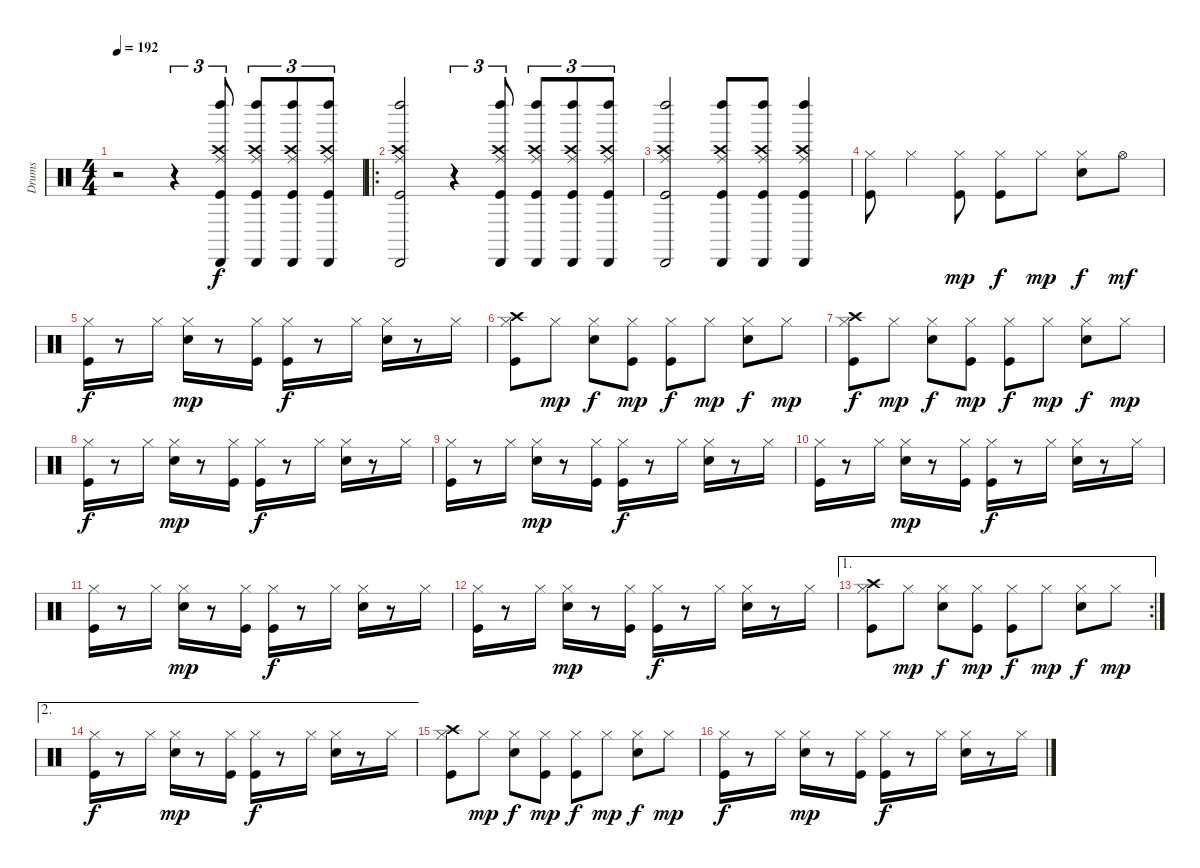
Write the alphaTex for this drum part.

\track ("Drums" "Drums") {instrument percussion}
\staff {score}
\articulation defaults
\ts (4 4)
\tempo 192
\clef neutral
\ks c
r.2{dy f} r.4{tu (3 2)} ("Kick (hit)" "Ride (middle)" "Crash high (hit)" "Left Maraca (hit)" "Cabasa (hit)").8{tu (3 2)} ("Kick (hit)" "Ride (middle)" "Crash high (hit)" "Left Maraca (hit)" "Cabasa (hit)").8{tu (3 2)} ("Kick (hit)" "Ride (middle)" "Crash high (hit)" "Left Maraca (hit)" "Cabasa (hit)").8{tu (3 2)} ("Kick (hit)" "Ride (middle)" "Crash high (hit)" "Left Maraca (hit)" "Cabasa (hit)").8{tu (3 2)} |
\ro
("Kick (hit)" "Ride (middle)" "Crash high (hit)" "Left Maraca (hit)" "Cabasa (hit)").2 r.4{tu (3 2)} ("Kick (hit)" "Ride (middle)" "Crash high (hit)" "Left Maraca (hit)" "Cabasa (hit)").8{tu (3 2)} ("Kick (hit)" "Ride (middle)" "Crash high (hit)" "Left Maraca (hit)" "Cabasa (hit)").8{tu (3 2)} ("Kick (hit)" "Ride (middle)" "Crash high (hit)" "Left Maraca (hit)" "Cabasa (hit)").8{tu (3 2)} ("Kick (hit)" "Ride (middle)" "Crash high (hit)" "Left Maraca (hit)" "Cabasa (hit)").8{tu (3 2)} |
("Kick (hit)" "Ride (middle)" "Crash high (hit)" "Left Maraca (hit)" "Cabasa (hit)").2 ("Kick (hit)" "Ride (middle)" "Crash high (hit)" "Left Maraca (hit)" "Cabasa (hit)").8 ("Kick (hit)" "Ride (middle)" "Crash high (hit)" "Left Maraca (hit)" "Cabasa (hit)").8 ("Kick (hit)" "Ride (middle)" "Crash high (hit)" "Left Maraca (hit)" "Cabasa (hit)").4 |
("Kick (hit)" "Hi-Hat (closed)").8 "Hi-Hat (closed)".4 ("Kick (hit)" "Hi-Hat (closed)").8{dy mp} ("Kick (hit)" "Hi-Hat (closed)").8{dy f} "Hi-Hat (closed)".8{dy mp} ("Snare (hit) 2" "Hi-Hat (closed)").8{dy f} "Hi-Hat (open)".8{dy mf} |
("Kick (hit)" "Hi-Hat (closed)").16{dy f} r.8 "Hi-Hat (closed)".16 ("Snare (hit) 2" "Hi-Hat (closed)").16{dy mp} r.8 ("Kick (hit)" "Hi-Hat (closed)").16 ("Kick (hit)" "Hi-Hat (closed)").16{dy f} r.8 "Hi-Hat (closed)".16 ("Snare (hit) 2" "Hi-Hat (closed)").16 r.8 "Hi-Hat (closed)".16 |
("Kick (hit)" "Hi-Hat (closed)" "Crash high (hit)").8 "Hi-Hat (closed)".8{dy mp} ("Snare (hit) 2" "Hi-Hat (closed)").8{dy f} ("Kick (hit)" "Hi-Hat (closed)").8{dy mp} ("Kick (hit)" "Hi-Hat (closed)").8{dy f} "Hi-Hat (closed)".8{dy mp} ("Snare (hit) 2" "Hi-Hat (closed)").8{dy f} "Hi-Hat (closed)".8{dy mp} |
("Kick (hit)" "Hi-Hat (closed)" "Crash high (hit)").8{dy f} "Hi-Hat (closed)".8{dy mp} ("Snare (hit) 2" "Hi-Hat (closed)").8{dy f} ("Kick (hit)" "Hi-Hat (closed)").8{dy mp} ("Kick (hit)" "Hi-Hat (closed)").8{dy f} "Hi-Hat (closed)".8{dy mp} ("Snare (hit) 2" "Hi-Hat (closed)").8{dy f} "Hi-Hat (closed)".8{dy mp} |
("Kick (hit)" "Hi-Hat (closed)").16{dy f} r.8 "Hi-Hat (closed)".16 ("Snare (hit) 2" "Hi-Hat (closed)").16{dy mp} r.8 ("Kick (hit)" "Hi-Hat (closed)").16 ("Kick (hit)" "Hi-Hat (closed)").16{dy f} r.8 "Hi-Hat (closed)".16 ("Snare (hit) 2" "Hi-Hat (closed)").16 r.8 "Hi-Hat (closed)".16 |
("Kick (hit)" "Hi-Hat (closed)").16 r.8 "Hi-Hat (closed)".16 ("Snare (hit) 2" "Hi-Hat (closed)").16{dy mp} r.8 ("Kick (hit)" "Hi-Hat (closed)").16 ("Kick (hit)" "Hi-Hat (closed)").16{dy f} r.8 "Hi-Hat (closed)".16 ("Snare (hit) 2" "Hi-Hat (closed)").16 r.8 "Hi-Hat (closed)".16 |
("Kick (hit)" "Hi-Hat (closed)").16 r.8 "Hi-Hat (closed)".16 ("Snare (hit) 2" "Hi-Hat (closed)").16{dy mp} r.8 ("Kick (hit)" "Hi-Hat (closed)").16 ("Kick (hit)" "Hi-Hat (closed)").16{dy f} r.8 "Hi-Hat (closed)".16 ("Snare (hit) 2" "Hi-Hat (closed)").16 r.8 "Hi-Hat (closed)".16 |
("Kick (hit)" "Hi-Hat (closed)").16 r.8 "Hi-Hat (closed)".16 ("Snare (hit) 2" "Hi-Hat (closed)").16{dy mp} r.8 ("Kick (hit)" "Hi-Hat (closed)").16 ("Kick (hit)" "Hi-Hat (closed)").16{dy f} r.8 "Hi-Hat (closed)".16 ("Snare (hit) 2" "Hi-Hat (closed)").16 r.8 "Hi-Hat (closed)".16 |
("Kick (hit)" "Hi-Hat (closed)").16 r.8 "Hi-Hat (closed)".16 ("Snare (hit) 2" "Hi-Hat (closed)").16{dy mp} r.8 ("Kick (hit)" "Hi-Hat (closed)").16 ("Kick (hit)" "Hi-Hat (closed)").16{dy f} r.8 "Hi-Hat (closed)".16 ("Snare (hit) 2" "Hi-Hat (closed)").16 r.8 "Hi-Hat (closed)".16 |
\ae 1
\rc 2
("Kick (hit)" "Hi-Hat (closed)" "Crash high (hit)").8 "Hi-Hat (closed)".8{dy mp} ("Snare (hit) 2" "Hi-Hat (closed)").8{dy f} ("Kick (hit)" "Hi-Hat (closed)").8{dy mp} ("Kick (hit)" "Hi-Hat (closed)").8{dy f} "Hi-Hat (closed)".8{dy mp} ("Snare (hit) 2" "Hi-Hat (closed)").8{dy f} "Hi-Hat (closed)".8{dy mp} |
\ae 2
("Kick (hit)" "Hi-Hat (closed)").16{dy f} r.8 "Hi-Hat (closed)".16 ("Snare (hit) 2" "Hi-Hat (closed)").16{dy mp} r.8 ("Kick (hit)" "Hi-Hat (closed)").16 ("Kick (hit)" "Hi-Hat (closed)").16{dy f} r.8 "Hi-Hat (closed)".16 ("Snare (hit) 2" "Hi-Hat (closed)").16 r.8 "Hi-Hat (closed)".16 |
("Kick (hit)" "Hi-Hat (closed)" "Crash high (hit)").8 "Hi-Hat (closed)".8{dy mp} ("Snare (hit) 2" "Hi-Hat (closed)").8{dy f} ("Kick (hit)" "Hi-Hat (closed)").8{dy mp} ("Kick (hit)" "Hi-Hat (closed)").8{dy f} "Hi-Hat (closed)".8{dy mp} ("Snare (hit) 2" "Hi-Hat (closed)").8{dy f} "Hi-Hat (closed)".8{dy mp} |
("Kick (hit)" "Hi-Hat (closed)").16{dy f} r.8 "Hi-Hat (closed)".16 ("Snare (hit) 2" "Hi-Hat (closed)").16{dy mp} r.8 ("Kick (hit)" "Hi-Hat (closed)").16 ("Kick (hit)" "Hi-Hat (closed)").16{dy f} r.8 "Hi-Hat (closed)".16 ("Snare (hit) 2" "Hi-Hat (closed)").16 r.8 "Hi-Hat (closed)".16
